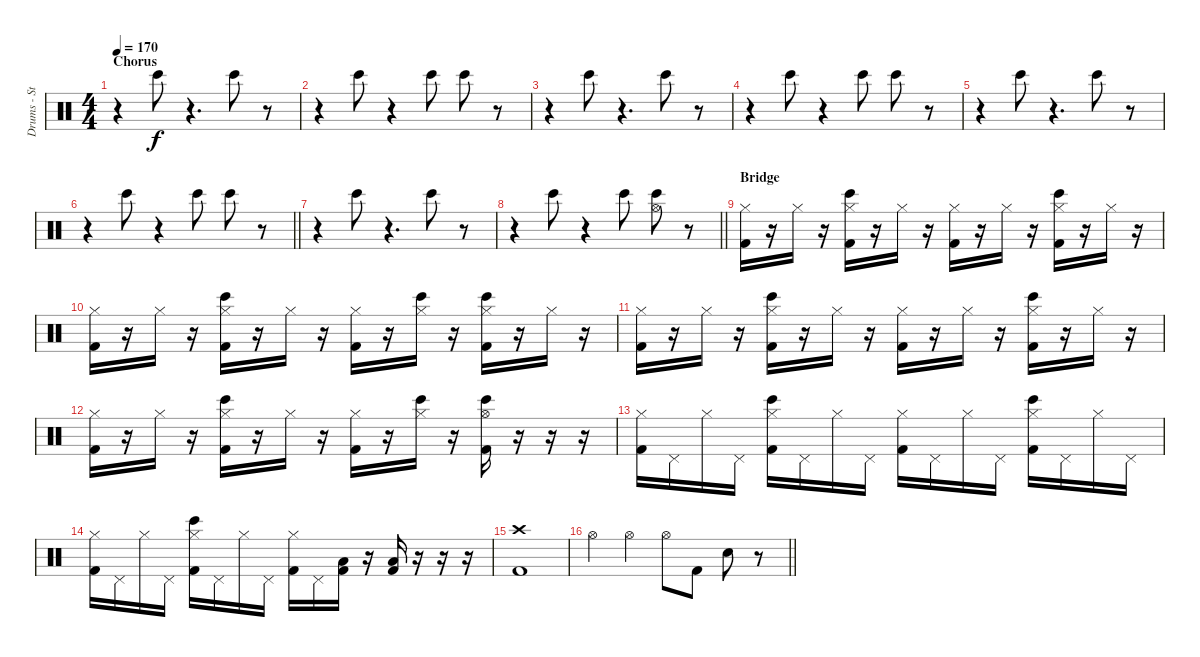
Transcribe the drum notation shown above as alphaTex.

\track ("Drums - Steeve" "Drums - St") {instrument percussion}
\staff {score}
\articulation defaults
\ts (4 4)
\section ("" "Chorus")
\tempo 170
\clef neutral
\ks c
r.4{dy f} "Bongo High (hit)".8 r.4{d} "Bongo High (hit)".8 r.8 |
r.4 "Bongo High (hit)".8 r.4 "Bongo High (hit)".8 "Bongo High (hit)".8 r.8 |
r.4 "Bongo High (hit)".8 r.4{d} "Bongo High (hit)".8 r.8 |
r.4 "Bongo High (hit)".8 r.4 "Bongo High (hit)".8 "Bongo High (hit)".8 r.8 |
r.4 "Bongo High (hit)".8 r.4{d} "Bongo High (hit)".8 r.8 |
\barLineRight lightlight
r.4 "Bongo High (hit)".8 r.4 "Bongo High (hit)".8 "Bongo High (hit)".8 r.8 |
r.4 "Bongo High (hit)".8 r.4{d} "Bongo High (hit)".8 r.8 |
\barLineRight lightlight
r.4 "Bongo High (hit)".8 r.4 "Bongo High (hit)".8 ("Bongo High (hit)" "Hi-Hat (open)").8 r.8 |
\section ("" "Bridge")
("Hi-Hat (closed)" "Kick (hit) 2").16 r.16 "Hi-Hat (closed)".16 r.16 ("Hi-Hat (closed)" "Kick (hit) 2" "Bongo High (hit)").16 r.16 "Hi-Hat (closed)".16 r.16 ("Hi-Hat (closed)" "Kick (hit) 2").16 r.16 "Hi-Hat (closed)".16 r.16 ("Hi-Hat (closed)" "Kick (hit) 2" "Bongo High (hit)").16 r.16 "Hi-Hat (closed)".16 r.16 |
("Hi-Hat (closed)" "Kick (hit) 2").16 r.16 "Hi-Hat (closed)".16 r.16 ("Hi-Hat (closed)" "Kick (hit) 2" "Bongo High (hit)").16 r.16 "Hi-Hat (closed)".16 r.16 ("Hi-Hat (closed)" "Kick (hit) 2").16 r.16 ("Hi-Hat (closed)" "Bongo High (hit)").16 r.16 ("Hi-Hat (closed)" "Kick (hit) 2" "Bongo High (hit)").16 r.16 "Hi-Hat (closed)".16 r.16 |
("Hi-Hat (closed)" "Kick (hit) 2").16 r.16 "Hi-Hat (closed)".16 r.16 ("Hi-Hat (closed)" "Kick (hit) 2" "Bongo High (hit)").16 r.16 "Hi-Hat (closed)".16 r.16 ("Hi-Hat (closed)" "Kick (hit) 2").16 r.16 "Hi-Hat (closed)".16 r.16 ("Hi-Hat (closed)" "Kick (hit) 2" "Bongo High (hit)").16 r.16 "Hi-Hat (closed)".16 r.16 |
("Hi-Hat (closed)" "Kick (hit) 2").16 r.16 "Hi-Hat (closed)".16 r.16 ("Hi-Hat (closed)" "Kick (hit) 2" "Bongo High (hit)").16 r.16 "Hi-Hat (closed)".16 r.16 ("Hi-Hat (closed)" "Kick (hit) 2").16 r.16 ("Hi-Hat (closed)" "Bongo High (hit)").16 r.16 ("Hi-Hat (open)" "Kick (hit) 2" "Bongo High (hit)").16 r.16 r.16 r.16 |
("Hi-Hat (closed)" "Kick (hit) 2").16 "Pedal Hi-Hat (hit)".16 "Hi-Hat (closed)".16 "Pedal Hi-Hat (hit)".16 ("Hi-Hat (closed)" "Kick (hit) 2" "Bongo High (hit)").16 "Pedal Hi-Hat (hit)".16 "Hi-Hat (closed)".16 "Pedal Hi-Hat (hit)".16 ("Hi-Hat (closed)" "Kick (hit) 2").16 "Pedal Hi-Hat (hit)".16 "Hi-Hat (closed)".16 "Pedal Hi-Hat (hit)".16 ("Hi-Hat (closed)" "Kick (hit) 2" "Bongo High (hit)").16 "Pedal Hi-Hat (hit)".16 "Hi-Hat (closed)".16 "Pedal Hi-Hat (hit)".16 |
("Hi-Hat (closed)" "Kick (hit) 2").16 "Pedal Hi-Hat (hit)".16 "Hi-Hat (closed)".16 "Pedal Hi-Hat (hit)".16 ("Hi-Hat (closed)" "Kick (hit) 2" "Bongo High (hit)").16 "Pedal Hi-Hat (hit)".16 "Hi-Hat (closed)".16 "Pedal Hi-Hat (hit)".16 ("Hi-Hat (closed)" "Kick (hit) 2").16 "Pedal Hi-Hat (hit)".16 ("Kick (hit) 2" "Low Floor Tom (hit)").16 r.16 ("Kick (hit) 2" "Low Floor Tom (hit)").16 r.16 r.16 r.16 |
("Kick (hit) 2" "Crash high (hit)").1 |
\barLineRight lightlight "Hi-Hat (open)".4 "Hi-Hat (open)".4 "Hi-Hat (open)".8 "Kick (hit) 2".8 "Electric Snare (hit)".8
r.8
